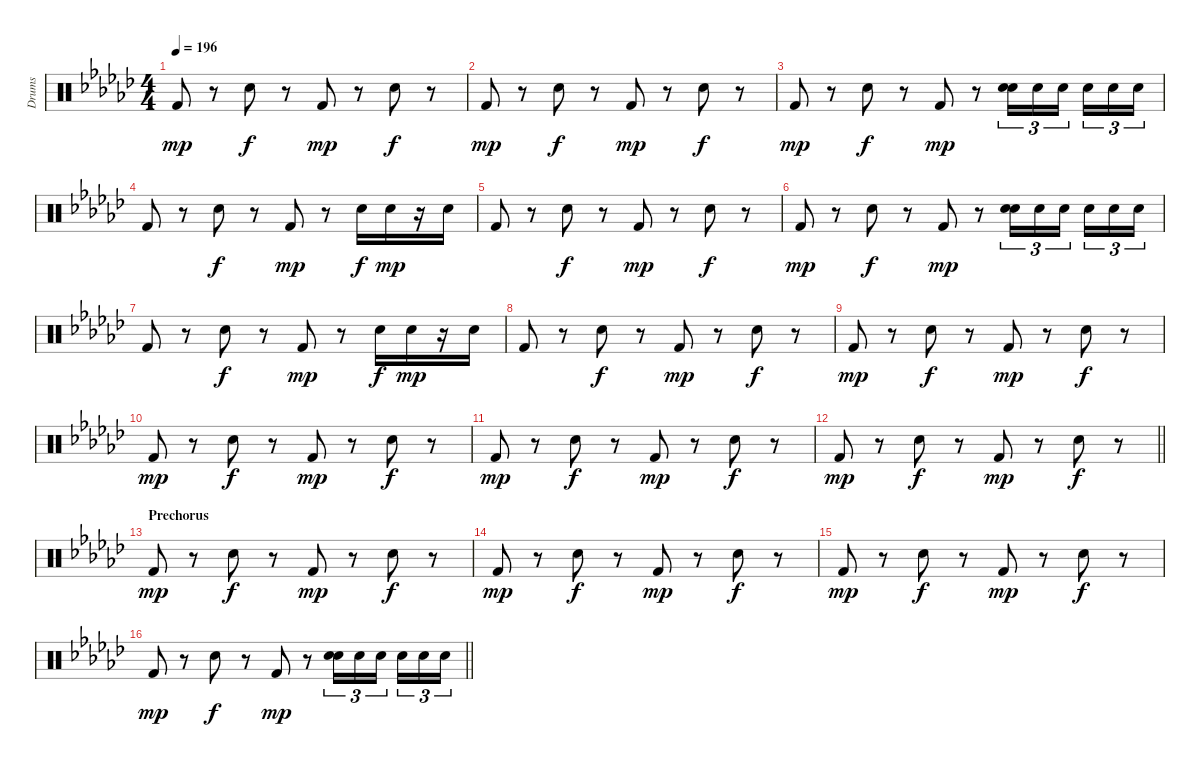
\track ("Drums" "Drums") {instrument percussion}
\staff {score}
\articulation defaults
\ts (4 4)
\tempo 196
\clef neutral
\ks gb "Kick (hit) 2".8{dy mp}
r.8 "Snare (hit) 2".8{dy f} r.8 "Kick (hit) 2".8{dy mp} r.8 "Snare (hit) 2".8{dy f} r.8 |
"Kick (hit) 2".8{dy mp} r.8 "Snare (hit) 2".8{dy f} r.8 "Kick (hit) 2".8{dy mp} r.8 "Snare (hit) 2".8{dy f} r.8 |
"Kick (hit) 2".8{dy mp} r.8 "Snare (hit) 2".8{dy f} r.8 "Kick (hit) 2".8{dy mp} r.8 ("Hand Clap (hit)" "Snare (hit) 2").16{tu (3 2)} "Hand Clap (hit)".16{tu (3 2)} "Hand Clap (hit)".16{tu (3 2) beam splitsecondary} "Hand Clap (hit)".16{tu (3 2)} "Hand Clap (hit)".16{tu (3 2)} "Hand Clap (hit)".16{tu (3 2)} |
"Kick (hit) 2".8 r.8 "Snare (hit) 2".8{dy f} r.8 "Kick (hit) 2".8{dy mp} r.8 "Snare (hit) 2".16{dy f} "Hand Clap (hit)".16{dy mp} r.16 "Hand Clap (hit)".16 |
"Kick (hit) 2".8 r.8 "Snare (hit) 2".8{dy f} r.8 "Kick (hit) 2".8{dy mp} r.8 "Snare (hit) 2".8{dy f} r.8 |
"Kick (hit) 2".8{dy mp} r.8 "Snare (hit) 2".8{dy f} r.8 "Kick (hit) 2".8{dy mp} r.8 ("Hand Clap (hit)" "Snare (hit) 2").16{tu (3 2)} "Hand Clap (hit)".16{tu (3 2)} "Hand Clap (hit)".16{tu (3 2) beam splitsecondary} "Hand Clap (hit)".16{tu (3 2)} "Hand Clap (hit)".16{tu (3 2)} "Hand Clap (hit)".16{tu (3 2)} |
"Kick (hit) 2".8 r.8 "Snare (hit) 2".8{dy f} r.8 "Kick (hit) 2".8{dy mp} r.8 "Snare (hit) 2".16{dy f} "Hand Clap (hit)".16{dy mp} r.16 "Hand Clap (hit)".16 |
"Kick (hit) 2".8 r.8 "Snare (hit) 2".8{dy f} r.8 "Kick (hit) 2".8{dy mp} r.8 "Snare (hit) 2".8{dy f} r.8 |
"Kick (hit) 2".8{dy mp} r.8 "Snare (hit) 2".8{dy f} r.8 "Kick (hit) 2".8{dy mp} r.8 "Snare (hit) 2".8{dy f} r.8 |
"Kick (hit) 2".8{dy mp} r.8 "Snare (hit) 2".8{dy f} r.8 "Kick (hit) 2".8{dy mp} r.8 "Snare (hit) 2".8{dy f} r.8 |
"Kick (hit) 2".8{dy mp} r.8 "Snare (hit) 2".8{dy f} r.8 "Kick (hit) 2".8{dy mp} r.8 "Snare (hit) 2".8{dy f} r.8 |
\barLineRight lightlight "Kick (hit) 2".8{dy mp}
r.8 "Snare (hit) 2".8{dy f} r.8 "Kick (hit) 2".8{dy mp} r.8 "Snare (hit) 2".8{dy f} r.8 |
\section ("" "Prechorus")
"Kick (hit) 2".8{dy mp} r.8 "Snare (hit) 2".8{dy f} r.8 "Kick (hit) 2".8{dy mp} r.8 "Snare (hit) 2".8{dy f} r.8 |
"Kick (hit) 2".8{dy mp} r.8 "Snare (hit) 2".8{dy f} r.8 "Kick (hit) 2".8{dy mp} r.8 "Snare (hit) 2".8{dy f} r.8 |
"Kick (hit) 2".8{dy mp} r.8 "Snare (hit) 2".8{dy f} r.8 "Kick (hit) 2".8{dy mp} r.8 "Snare (hit) 2".8{dy f} r.8 |
\barLineRight lightlight "Kick (hit) 2".8{dy mp}
r.8 "Snare (hit) 2".8{dy f} r.8 "Kick (hit) 2".8{dy mp} r.8 ("Hand Clap (hit)" "Snare (hit) 2").16{tu (3 2)} "Hand Clap (hit)".16{tu (3 2)} "Hand Clap (hit)".16{tu (3 2) beam splitsecondary} "Hand Clap (hit)".16{tu (3 2)} "Hand Clap (hit)".16{tu (3 2)} "Hand Clap (hit)".16{tu (3 2)}
